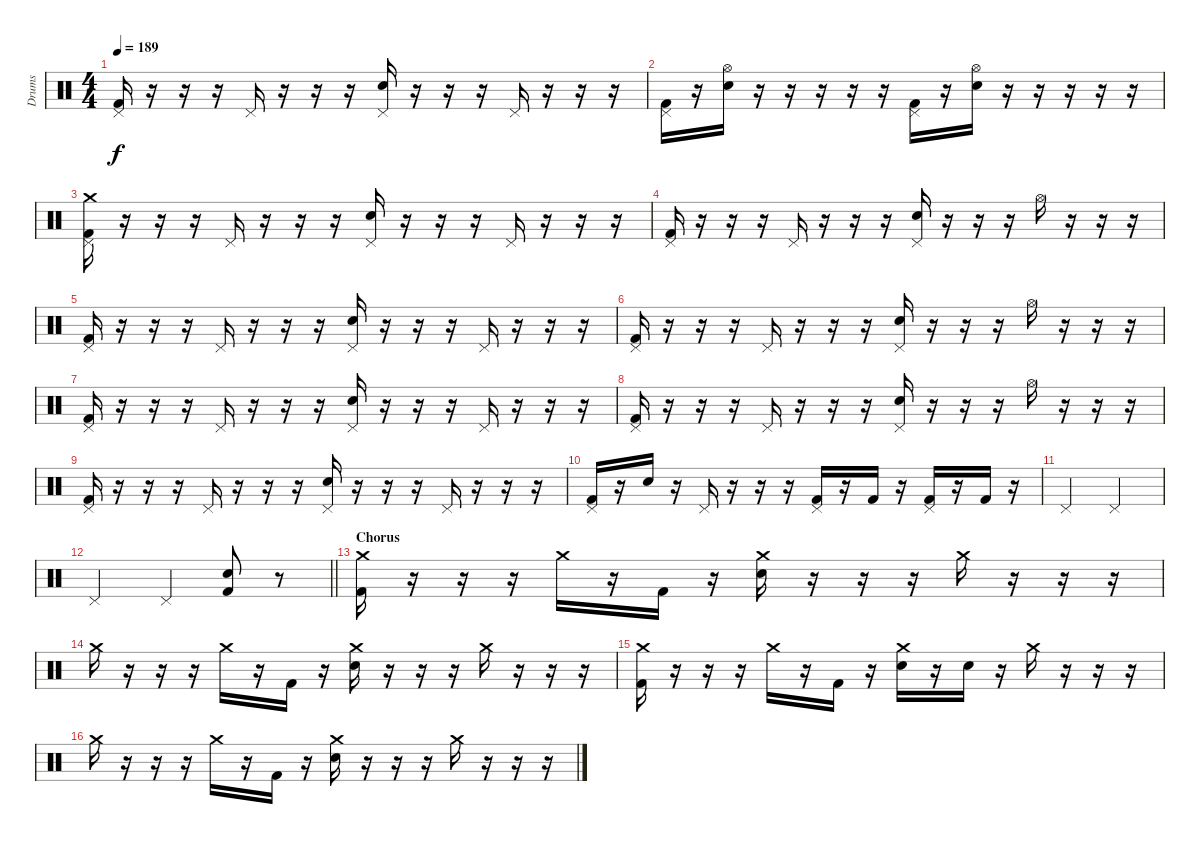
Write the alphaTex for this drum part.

\track ("Drums" "Drums") {instrument percussion}
\staff {score}
\articulation defaults
\ts (4 4)
\tempo 189
\clef neutral
\ks c
("Pedal Hi-Hat (hit)" "Kick (hit) 2").16{dy f} r.16 r.16 r.16 "Pedal Hi-Hat (hit)".16 r.16 r.16 r.16 ("Pedal Hi-Hat (hit)" "Snare (hit) 2").16 r.16 r.16 r.16 "Pedal Hi-Hat (hit)".16 r.16 r.16 r.16 |
("Pedal Hi-Hat (hit)" "Kick (hit) 2").16 r.16 ("Hi-Hat (open)" "Snare (hit) 2").16 r.16 r.16 r.16 r.16 r.16 ("Pedal Hi-Hat (hit)" "Kick (hit) 2").16 r.16 ("Hi-Hat (open)" "Snare (hit) 2").16 r.16 r.16 r.16 r.16 r.16 |
("Pedal Hi-Hat (hit)" "Kick (hit) 2" "Crash medium (hit)").16 r.16 r.16 r.16 "Pedal Hi-Hat (hit)".16 r.16 r.16 r.16 ("Pedal Hi-Hat (hit)" "Snare (hit) 2").16 r.16 r.16 r.16 "Pedal Hi-Hat (hit)".16 r.16 r.16 r.16 |
("Pedal Hi-Hat (hit)" "Kick (hit) 2").16 r.16 r.16 r.16 "Pedal Hi-Hat (hit)".16 r.16 r.16 r.16 ("Pedal Hi-Hat (hit)" "Snare (hit) 2").16 r.16 r.16 r.16 "Hi-Hat (open)".16 r.16 r.16 r.16 |
("Pedal Hi-Hat (hit)" "Kick (hit) 2").16 r.16 r.16 r.16 "Pedal Hi-Hat (hit)".16 r.16 r.16 r.16 ("Pedal Hi-Hat (hit)" "Snare (hit) 2").16 r.16 r.16 r.16 "Pedal Hi-Hat (hit)".16 r.16 r.16 r.16 |
("Pedal Hi-Hat (hit)" "Kick (hit) 2").16 r.16 r.16 r.16 "Pedal Hi-Hat (hit)".16 r.16 r.16 r.16 ("Pedal Hi-Hat (hit)" "Snare (hit) 2").16 r.16 r.16 r.16 "Hi-Hat (open)".16 r.16 r.16 r.16 |
("Pedal Hi-Hat (hit)" "Kick (hit) 2").16 r.16 r.16 r.16 "Pedal Hi-Hat (hit)".16 r.16 r.16 r.16 ("Pedal Hi-Hat (hit)" "Snare (hit) 2").16 r.16 r.16 r.16 "Pedal Hi-Hat (hit)".16 r.16 r.16 r.16 |
("Pedal Hi-Hat (hit)" "Kick (hit) 2").16 r.16 r.16 r.16 "Pedal Hi-Hat (hit)".16 r.16 r.16 r.16 ("Pedal Hi-Hat (hit)" "Snare (hit) 2").16 r.16 r.16 r.16 "Hi-Hat (open)".16 r.16 r.16 r.16 |
("Pedal Hi-Hat (hit)" "Kick (hit) 2").16 r.16 r.16 r.16 "Pedal Hi-Hat (hit)".16 r.16 r.16 r.16 ("Pedal Hi-Hat (hit)" "Snare (hit) 2").16 r.16 r.16 r.16 "Pedal Hi-Hat (hit)".16 r.16 r.16 r.16 |
("Pedal Hi-Hat (hit)" "Kick (hit) 2").16 r.16 "Snare (hit) 2".16 r.16 "Pedal Hi-Hat (hit)".16 r.16 r.16 r.16 ("Pedal Hi-Hat (hit)" "Kick (hit) 2").16 r.16 "Kick (hit) 2".16 r.16 ("Pedal Hi-Hat (hit)" "Kick (hit) 2").16 r.16 "Kick (hit) 2".16 r.16 |
"Pedal Hi-Hat (hit)".2 "Pedal Hi-Hat (hit)".2 |
\barLineRight lightlight "Pedal Hi-Hat (hit)".2 "Pedal Hi-Hat (hit)".4
("Kick (hit) 2" "Snare (hit) 2").8 r.8 |
\section ("" "Chorus ")
("Crash medium (hit)" "Kick (hit) 2").16 r.16 r.16 r.16 "Crash medium (hit)".16 r.16 "Kick (hit) 2".16 r.16 ("Crash medium (hit)" "Electric Snare (hit)").16 r.16 r.16 r.16 "Crash medium (hit)".16 r.16 r.16 r.16 |
"Crash medium (hit)".16 r.16 r.16 r.16 "Crash medium (hit)".16 r.16 "Kick (hit) 2".16 r.16 ("Crash medium (hit)" "Electric Snare (hit)").16 r.16 r.16 r.16 "Crash medium (hit)".16 r.16 r.16 r.16 |
("Crash medium (hit)" "Kick (hit) 2").16 r.16 r.16 r.16 "Crash medium (hit)".16 r.16 "Kick (hit) 2".16 r.16 ("Crash medium (hit)" "Electric Snare (hit)").16 r.16 "Electric Snare (hit)".16 r.16 "Crash medium (hit)".16 r.16 r.16 r.16 |
"Crash medium (hit)".16 r.16 r.16 r.16 "Crash medium (hit)".16 r.16 "Kick (hit) 2".16 r.16 ("Crash medium (hit)" "Electric Snare (hit)").16 r.16 r.16 r.16 "Crash medium (hit)".16 r.16 r.16 r.16
